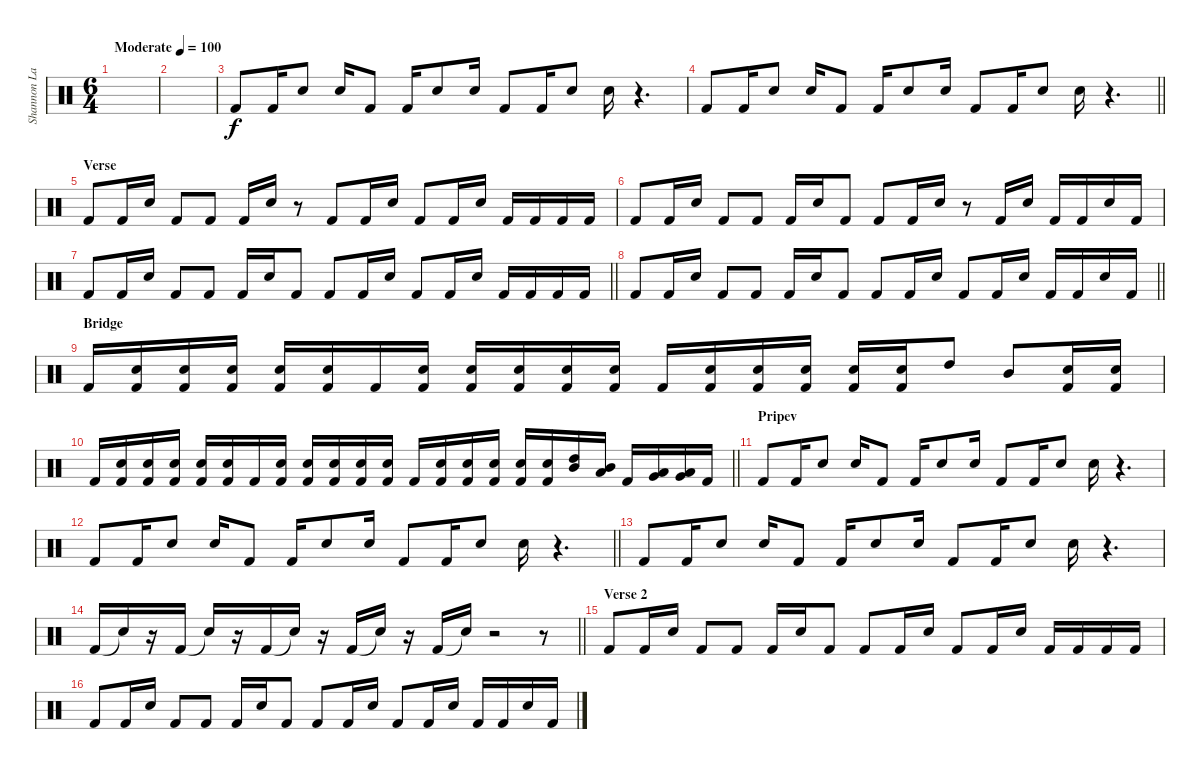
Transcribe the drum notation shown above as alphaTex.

\track ("Shannon Larkin [2]" "Shannon La") {instrument percussion}
\staff {score}
\articulation defaults
\ts (6 4)
\tempo (100 "Moderate")
\clef neutral
\ks c
|
|
"Kick (hit) 2".8 "Kick (hit) 2".16 "Electric Snare (hit)".8 "Electric Snare (hit)".16 "Kick (hit) 2".8 "Kick (hit) 2".16 "Electric Snare (hit)".8 "Electric Snare (hit)".16 "Kick (hit) 2".8 "Kick (hit) 2".16 "Electric Snare (hit)".8 "Electric Snare (hit)".16 r.4{d} |
\barLineRight lightlight "Kick (hit) 2".8 "Kick (hit) 2".16 "Electric Snare (hit)".8 "Electric Snare (hit)".16 "Kick (hit) 2".8 "Kick (hit) 2".16 "Electric Snare (hit)".8 "Electric Snare (hit)".16 "Kick (hit) 2".8 "Kick (hit) 2".16 "Electric Snare (hit)".8 "Electric Snare (hit)".16
r.4{d} |
\section ("" "Verse")
"Kick (hit) 2".8 "Kick (hit) 2".16 "Electric Snare (hit)".16 "Kick (hit) 2".8 "Kick (hit) 2".8 "Kick (hit) 2".16 "Electric Snare (hit)".16 r.8 "Kick (hit) 2".8 "Kick (hit) 2".16 "Electric Snare (hit)".16 "Kick (hit) 2".8 "Kick (hit) 2".16 "Electric Snare (hit)".16 "Kick (hit) 2".16 "Kick (hit) 2".16 "Kick (hit) 2".16 "Kick (hit) 2".16 |
"Kick (hit) 2".8 "Kick (hit) 2".16 "Electric Snare (hit)".16 "Kick (hit) 2".8 "Kick (hit) 2".8 "Kick (hit) 2".16 "Electric Snare (hit)".16 "Kick (hit) 2".8 "Kick (hit) 2".8 "Kick (hit) 2".16 "Electric Snare (hit)".16 r.8 "Kick (hit) 2".16 "Electric Snare (hit)".16 "Kick (hit) 2".16 "Kick (hit) 2".16 "Electric Snare (hit)".16 "Kick (hit) 2".16 |
\barLineRight lightlight "Kick (hit) 2".8 "Kick (hit) 2".16 "Electric Snare (hit)".16 "Kick (hit) 2".8 "Kick (hit) 2".8 "Kick (hit) 2".16 "Electric Snare (hit)".16 "Kick (hit) 2".8 "Kick (hit) 2".8 "Kick (hit) 2".16 "Electric Snare (hit)".16 "Kick (hit) 2".8 "Kick (hit) 2".16 "Electric Snare (hit)".16 "Kick (hit) 2".16 "Kick (hit) 2".16 "Kick (hit) 2".16 "Kick (hit) 2".16
|
\section ("" "")
\barLineRight lightlight "Kick (hit) 2".8 "Kick (hit) 2".16 "Electric Snare (hit)".16 "Kick (hit) 2".8 "Kick (hit) 2".8 "Kick (hit) 2".16 "Electric Snare (hit)".16 "Kick (hit) 2".8 "Kick (hit) 2".8 "Kick (hit) 2".16 "Electric Snare (hit)".16 "Kick (hit) 2".8 "Kick (hit) 2".16 "Electric Snare (hit)".16 "Kick (hit) 2".16 "Kick (hit) 2".16 "Electric Snare (hit)".16 "Kick (hit) 2".16
|
\section ("" "Bridge")
"Kick (hit) 2".16 ("Kick (hit) 2" "Electric Snare (hit)").16 ("Kick (hit) 2" "Electric Snare (hit)").16 ("Kick (hit) 2" "Electric Snare (hit)").16 ("Kick (hit) 2" "Electric Snare (hit)").16 ("Kick (hit) 2" "Electric Snare (hit)").16 "Kick (hit) 2".16 ("Kick (hit) 2" "Electric Snare (hit)").16 ("Kick (hit) 2" "Electric Snare (hit)").16 ("Kick (hit) 2" "Electric Snare (hit)").16 ("Kick (hit) 2" "Electric Snare (hit)").16 ("Kick (hit) 2" "Electric Snare (hit)").16 "Kick (hit) 2".16 ("Kick (hit) 2" "Electric Snare (hit)").16 ("Kick (hit) 2" "Electric Snare (hit)").16 ("Kick (hit) 2" "Electric Snare (hit)").16 ("Kick (hit) 2" "Electric Snare (hit)").16 ("Kick (hit) 2" "Electric Snare (hit)").16 "High Tom (hit)".8 "Mid Tom (hit)".8 ("Kick (hit) 2" "Snare (hit) 2").16 ("Kick (hit) 2" "Snare (hit) 2").16 |
\barLineRight lightlight "Kick (hit) 2".16
("Kick (hit) 2" "Electric Snare (hit)").16 ("Kick (hit) 2" "Electric Snare (hit)").16 ("Kick (hit) 2" "Electric Snare (hit)").16 ("Kick (hit) 2" "Electric Snare (hit)").16 ("Kick (hit) 2" "Electric Snare (hit)").16 "Kick (hit) 2".16 ("Kick (hit) 2" "Electric Snare (hit)").16 ("Kick (hit) 2" "Electric Snare (hit)").16 ("Kick (hit) 2" "Electric Snare (hit)").16 ("Kick (hit) 2" "Electric Snare (hit)").16 ("Kick (hit) 2" "Electric Snare (hit)").16 "Kick (hit) 2".16 ("Kick (hit) 2" "Electric Snare (hit)").16 ("Kick (hit) 2" "Electric Snare (hit)").16 ("Kick (hit) 2" "Electric Snare (hit)").16 ("Kick (hit) 2" "Electric Snare (hit)").16 ("Kick (hit) 2" "Electric Snare (hit)").16 ("High Tom (hit)" "Mid Tom (hit)").16 ("Mid Tom (hit)" "Low Tom (hit)").16 "Kick (hit) 2".16 ("Low Tom (hit)" "Very Low Tom (hit)").16 ("Very Low Tom (hit)" "Low Floor Tom (hit)").16 "Kick (hit) 2".16 |
\section ("" "Pripev")
"Kick (hit) 2".8 "Kick (hit) 2".16 "Electric Snare (hit)".8 "Electric Snare (hit)".16 "Kick (hit) 2".8 "Kick (hit) 2".16 "Electric Snare (hit)".8 "Electric Snare (hit)".16 "Kick (hit) 2".8 "Kick (hit) 2".16 "Electric Snare (hit)".8 "Electric Snare (hit)".16 r.4{d} |
\barLineRight lightlight "Kick (hit) 2".8 "Kick (hit) 2".16 "Electric Snare (hit)".8 "Electric Snare (hit)".16 "Kick (hit) 2".8 "Kick (hit) 2".16 "Electric Snare (hit)".8 "Electric Snare (hit)".16 "Kick (hit) 2".8 "Kick (hit) 2".16 "Electric Snare (hit)".8 "Electric Snare (hit)".16
r.4{d} |
"Kick (hit) 2".8 "Kick (hit) 2".16 "Electric Snare (hit)".8 "Electric Snare (hit)".16 "Kick (hit) 2".8 "Kick (hit) 2".16 "Electric Snare (hit)".8 "Electric Snare (hit)".16 "Kick (hit) 2".8 "Kick (hit) 2".16 "Electric Snare (hit)".8 "Electric Snare (hit)".16 r.4{d} |
\barLineRight lightlight "Kick (hit) 2".16 "Snare (hit)"{t}.16
r.16 "Kick (hit) 2".16 "Snare (hit)"{t}.16 r.16 "Kick (hit) 2".16 "Snare (hit)"{t}.16 r.16 "Kick (hit) 2".16 "Snare (hit)"{t}.16 r.16 "Kick (hit) 2".16 "Snare (hit)"{t}.16 r.2 r.8 |
\section ("" "Verse 2")
"Kick (hit) 2".8 "Kick (hit) 2".16 "Electric Snare (hit)".16 "Kick (hit) 2".8 "Kick (hit) 2".8 "Kick (hit) 2".16 "Electric Snare (hit)".16 "Kick (hit) 2".8 "Kick (hit) 2".8 "Kick (hit) 2".16 "Electric Snare (hit)".16 "Kick (hit) 2".8 "Kick (hit) 2".16 "Electric Snare (hit)".16 "Kick (hit) 2".16 "Kick (hit) 2".16 "Kick (hit) 2".16 "Kick (hit) 2".16 |
"Kick (hit) 2".8 "Kick (hit) 2".16 "Electric Snare (hit)".16 "Kick (hit) 2".8 "Kick (hit) 2".8 "Kick (hit) 2".16 "Electric Snare (hit)".16 "Kick (hit) 2".8 "Kick (hit) 2".8 "Kick (hit) 2".16 "Electric Snare (hit)".16 "Kick (hit) 2".8 "Kick (hit) 2".16 "Electric Snare (hit)".16 "Kick (hit) 2".16 "Kick (hit) 2".16 "Electric Snare (hit)".16 "Kick (hit) 2".16
